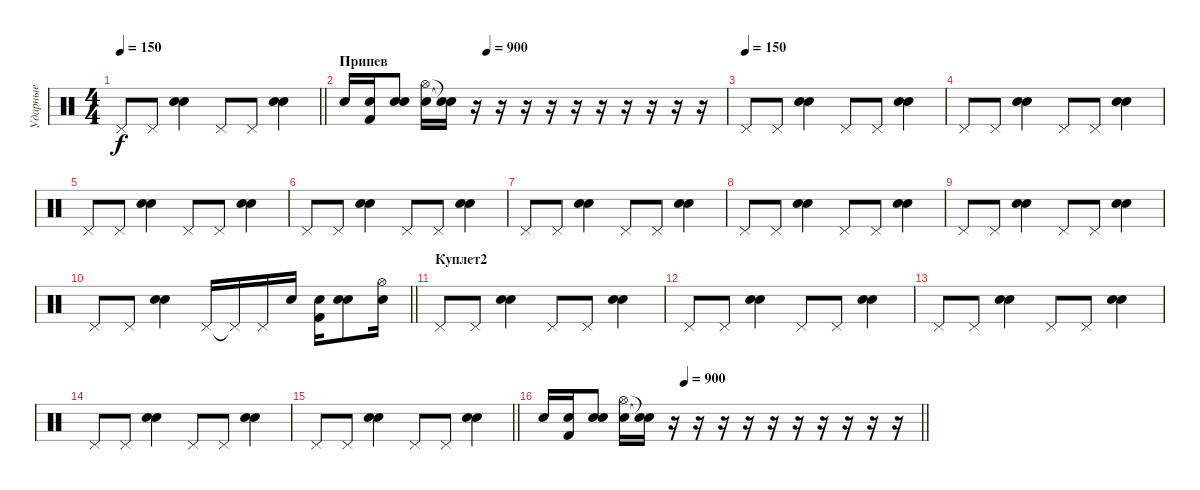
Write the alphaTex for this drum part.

\track ("Ударные" "Ударные") {instrument percussion}
\staff {score}
\articulation defaults
\ts (4 4)
\tempo 150
\clef neutral
\barLineRight lightlight
\ks c "Pedal Hi-Hat (hit)".8{dy f} "Pedal Hi-Hat (hit)".8
("Electric Snare (hit)" "Snare (hit) 2").4 "Pedal Hi-Hat (hit)".8 "Pedal Hi-Hat (hit)".8 ("Electric Snare (hit)" "Snare (hit) 2").4 |
\section ("" "Припев")
\tempo (900 0.375)
"Electric Snare (hit)".16 ("Electric Snare (hit)" "Kick (hit) 2").16 ("Electric Snare (hit)" "Snare (hit) 2").8 ("Hi-Hat (open)" "Electric Snare (hit)").16 ("Snare (hit)"{t} "Snare (hit)"{t}).16 r.16 r.16 r.16 r.16 r.16 r.16 r.16 r.16 r.16 r.16 |
\tempo (150)
"Pedal Hi-Hat (hit)".8 "Pedal Hi-Hat (hit)".8 ("Electric Snare (hit)" "Snare (hit) 2").4 "Pedal Hi-Hat (hit)".8 "Pedal Hi-Hat (hit)".8 ("Electric Snare (hit)" "Snare (hit) 2").4 |
"Pedal Hi-Hat (hit)".8 "Pedal Hi-Hat (hit)".8 ("Electric Snare (hit)" "Snare (hit) 2").4 "Pedal Hi-Hat (hit)".8 "Pedal Hi-Hat (hit)".8 ("Electric Snare (hit)" "Snare (hit) 2").4 |
"Pedal Hi-Hat (hit)".8 "Pedal Hi-Hat (hit)".8 ("Electric Snare (hit)" "Snare (hit) 2").4 "Pedal Hi-Hat (hit)".8 "Pedal Hi-Hat (hit)".8 ("Electric Snare (hit)" "Snare (hit) 2").4 |
"Pedal Hi-Hat (hit)".8 "Pedal Hi-Hat (hit)".8 ("Electric Snare (hit)" "Snare (hit) 2").4 "Pedal Hi-Hat (hit)".8 "Pedal Hi-Hat (hit)".8 ("Electric Snare (hit)" "Snare (hit) 2").4 |
"Pedal Hi-Hat (hit)".8 "Pedal Hi-Hat (hit)".8 ("Electric Snare (hit)" "Snare (hit) 2").4 "Pedal Hi-Hat (hit)".8 "Pedal Hi-Hat (hit)".8 ("Electric Snare (hit)" "Snare (hit) 2").4 |
"Pedal Hi-Hat (hit)".8 "Pedal Hi-Hat (hit)".8 ("Electric Snare (hit)" "Snare (hit) 2").4 "Pedal Hi-Hat (hit)".8 "Pedal Hi-Hat (hit)".8 ("Electric Snare (hit)" "Snare (hit) 2").4 |
"Pedal Hi-Hat (hit)".8 "Pedal Hi-Hat (hit)".8 ("Electric Snare (hit)" "Snare (hit) 2").4 "Pedal Hi-Hat (hit)".8 "Pedal Hi-Hat (hit)".8 ("Electric Snare (hit)" "Snare (hit) 2").4 |
\barLineRight lightlight "Pedal Hi-Hat (hit)".8 "Pedal Hi-Hat (hit)".8
("Electric Snare (hit)" "Snare (hit) 2").4 "Pedal Hi-Hat (hit)".16 "Pedal Hi-Hat (hit)"{t}.16 "Pedal Hi-Hat (hit)".16 "Electric Snare (hit)".16 ("Electric Snare (hit)" "Kick (hit) 2").16 ("Electric Snare (hit)" "Snare (hit) 2").8 ("Hi-Hat (open)" "Electric Snare (hit)").16 |
\section ("" "Куплет2")
"Pedal Hi-Hat (hit)".8 "Pedal Hi-Hat (hit)".8 ("Electric Snare (hit)" "Snare (hit) 2").4 "Pedal Hi-Hat (hit)".8 "Pedal Hi-Hat (hit)".8 ("Electric Snare (hit)" "Snare (hit) 2").4 |
"Pedal Hi-Hat (hit)".8 "Pedal Hi-Hat (hit)".8 ("Electric Snare (hit)" "Snare (hit) 2").4 "Pedal Hi-Hat (hit)".8 "Pedal Hi-Hat (hit)".8 ("Electric Snare (hit)" "Snare (hit) 2").4 |
"Pedal Hi-Hat (hit)".8 "Pedal Hi-Hat (hit)".8 ("Electric Snare (hit)" "Snare (hit) 2").4 "Pedal Hi-Hat (hit)".8 "Pedal Hi-Hat (hit)".8 ("Electric Snare (hit)" "Snare (hit) 2").4 |
"Pedal Hi-Hat (hit)".8 "Pedal Hi-Hat (hit)".8 ("Electric Snare (hit)" "Snare (hit) 2").4 "Pedal Hi-Hat (hit)".8 "Pedal Hi-Hat (hit)".8 ("Electric Snare (hit)" "Snare (hit) 2").4 |
\barLineRight lightlight "Pedal Hi-Hat (hit)".8 "Pedal Hi-Hat (hit)".8
("Electric Snare (hit)" "Snare (hit) 2").4 "Pedal Hi-Hat (hit)".8 "Pedal Hi-Hat (hit)".8 ("Electric Snare (hit)" "Snare (hit) 2").4 |
\tempo (900 0.375)
\barLineRight lightlight "Electric Snare (hit)".16
("Electric Snare (hit)" "Kick (hit) 2").16 ("Electric Snare (hit)" "Snare (hit) 2").8 ("Hi-Hat (open)" "Electric Snare (hit)").16 ("Snare (hit)"{t} "Snare (hit)"{t}).16 r.16 r.16 r.16 r.16 r.16 r.16 r.16 r.16 r.16 r.16
